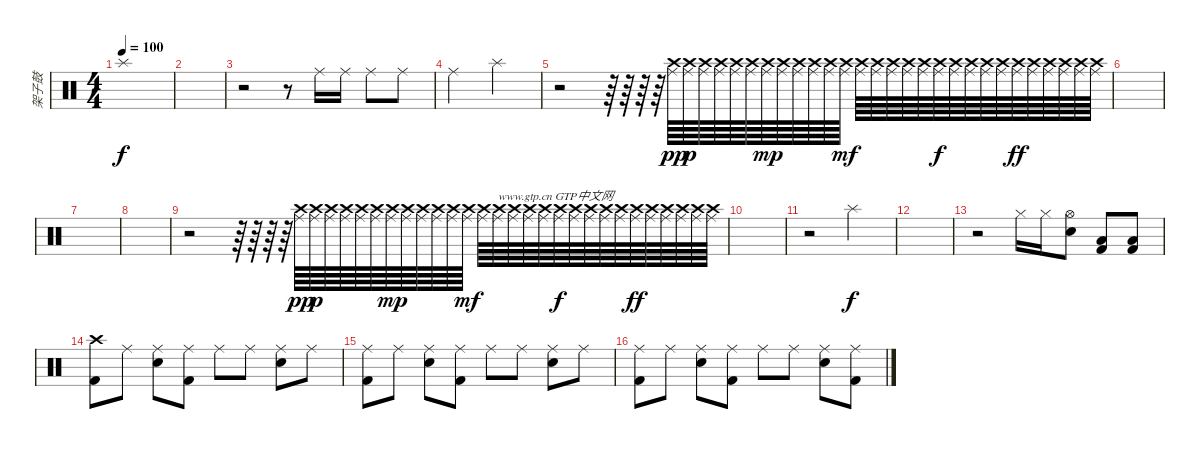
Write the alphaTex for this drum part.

\track ("架子鼓" "架子鼓") {instrument percussion}
\staff {score}
\articulation defaults
\ts (4 4)
\tempo 100
\clef neutral
\ks c "Splash (hit)".1{dy f}
|
|
r.2 r.8 "Ride (middle)".16 "Ride (middle)".16 "Ride (middle)".8 "Ride (middle)".8 |
"Ride (middle)".2 "Splash (hit)".2 |
r.2 r.64 r.64 r.64 r.64 ("Crash high (hit)" "Ride (middle)").64{dy pp} ("Crash high (hit)" "Ride (middle)").64{dy p} ("Crash high (hit)" "Ride (middle)").64 ("Crash high (hit)" "Ride (middle)").64 ("Crash high (hit)" "Ride (middle)").64 ("Crash high (hit)" "Ride (middle)").64 ("Crash high (hit)" "Ride (middle)").64{dy mp} ("Crash high (hit)" "Ride (middle)").64 ("Crash high (hit)" "Ride (middle)").64 ("Crash high (hit)" "Ride (middle)").64 ("Crash high (hit)" "Ride (middle)").64 ("Crash high (hit)" "Ride (middle)").64{dy mf} ("Crash high (hit)" "Ride (middle)").64 ("Crash high (hit)" "Ride (middle)").64 ("Crash high (hit)" "Ride (middle)").64 ("Crash high (hit)" "Ride (middle)").64 ("Crash high (hit)" "Ride (middle)").64 ("Crash high (hit)" "Ride (middle)").64{dy f} ("Crash high (hit)" "Ride (middle)").64 ("Crash high (hit)" "Ride (middle)").64 ("Crash high (hit)" "Ride (middle)").64 ("Crash high (hit)" "Ride (middle)").64 ("Crash high (hit)" "Ride (middle)").64{dy ff} ("Crash high (hit)" "Ride (middle)").64 ("Crash high (hit)" "Ride (middle)").64 ("Crash high (hit)" "Ride (middle)").64 ("Crash high (hit)" "Ride (middle)").64 ("Crash high (hit)" "Ride (middle)").64 |
|
|
|
r.2 r.64 r.64 r.64 r.64 ("Crash high (hit)" "Ride (middle)").64{dy pp} ("Crash high (hit)" "Ride (middle)").64{dy p} ("Crash high (hit)" "Ride (middle)").64 ("Crash high (hit)" "Ride (middle)").64 ("Crash high (hit)" "Ride (middle)").64 ("Crash high (hit)" "Ride (middle)").64 ("Crash high (hit)" "Ride (middle)").64{dy mp} ("Crash high (hit)" "Ride (middle)").64 ("Crash high (hit)" "Ride (middle)").64 ("Crash high (hit)" "Ride (middle)").64{txt "                    www.gtp.cn GTP中文网"} ("Crash high (hit)" "Ride (middle)").64 ("Crash high (hit)" "Ride (middle)").64{dy mf} ("Crash high (hit)" "Ride (middle)").64 ("Crash high (hit)" "Ride (middle)").64 ("Crash high (hit)" "Ride (middle)").64 ("Crash high (hit)" "Ride (middle)").64 ("Crash high (hit)" "Ride (middle)").64 ("Crash high (hit)" "Ride (middle)").64{dy f} ("Crash high (hit)" "Ride (middle)").64 ("Crash high (hit)" "Ride (middle)").64 ("Crash high (hit)" "Ride (middle)").64 ("Crash high (hit)" "Ride (middle)").64 ("Crash high (hit)" "Ride (middle)").64{dy ff} ("Crash high (hit)" "Ride (middle)").64 ("Crash high (hit)" "Ride (middle)").64 ("Crash high (hit)" "Ride (middle)").64 ("Crash high (hit)" "Ride (middle)").64 ("Crash high (hit)" "Ride (middle)").64 |
|
r.2 "Splash (hit)".2{dy f} |
|
r.2 "Hi-Hat (closed)".16 "Hi-Hat (closed)".16 ("Hi-Hat (open)" "Snare (hit) 2").8 ("Low Tom (hit)" "Kick (hit) 2").8 ("Low Tom (hit)" "Kick (hit) 2").8 |
("Crash high (hit)" "Kick (hit) 2").8 "Ride (middle)".8 ("Ride (middle)" "Snare (hit) 2").8 ("Ride (middle)" "Kick (hit) 2").8 "Ride (middle)".8 "Ride (middle)".8 ("Ride (middle)" "Snare (hit) 2").8 "Ride (middle)".8 |
("Ride (middle)" "Kick (hit) 2").8 "Ride (middle)".8 ("Ride (middle)" "Snare (hit) 2").8 ("Ride (middle)" "Kick (hit) 2").8 "Ride (middle)".8 "Ride (middle)".8 ("Ride (middle)" "Snare (hit) 2").8 "Ride (middle)".8 |
("Ride (middle)" "Kick (hit) 2").8 "Ride (middle)".8 ("Ride (middle)" "Snare (hit) 2").8 ("Ride (middle)" "Kick (hit) 2").8 "Ride (middle)".8 "Ride (middle)".8 ("Ride (middle)" "Snare (hit) 2").8 ("Ride (middle)" "Kick (hit) 2").8
